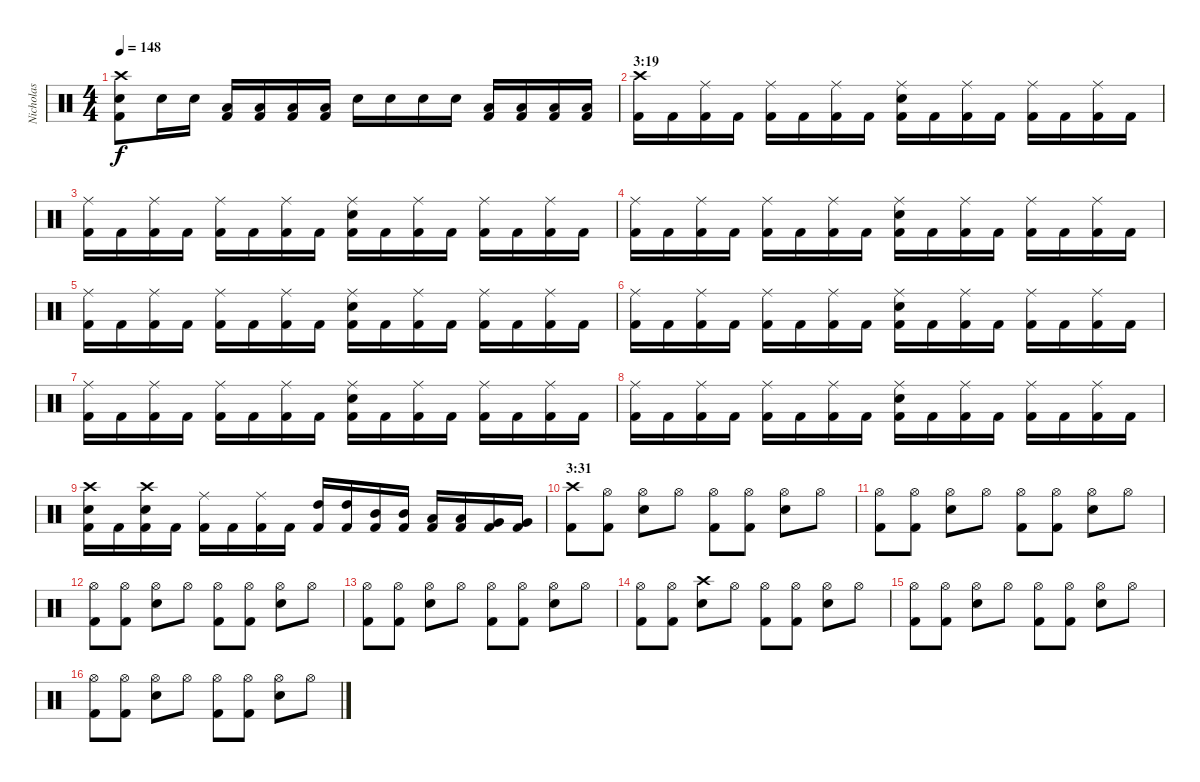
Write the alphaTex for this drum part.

\track ("Nicholas" "Nicholas") {instrument percussion}
\staff {score}
\articulation defaults
\ts (4 4)
\tempo 148
\clef neutral
\ks c
("Kick (hit) 2" "Snare (hit) 2" "Crash high (hit)").8{dy f} "Snare (hit) 2".16 "Snare (hit) 2".16 ("Kick (hit) 2" "Low Tom (hit)").16 ("Kick (hit) 2" "Low Tom (hit)").16 ("Kick (hit) 2" "Low Tom (hit)").16 ("Kick (hit) 2" "Low Tom (hit)").16 "Snare (hit) 2".16 "Snare (hit) 2".16 "Snare (hit) 2".16 "Snare (hit) 2".16 ("Kick (hit) 2" "Low Tom (hit)").16 ("Kick (hit) 2" "Low Tom (hit)").16 ("Kick (hit) 2" "Low Tom (hit)").16 ("Kick (hit) 2" "Low Tom (hit)").16 |
\section ("" "3:19")
("Kick (hit) 2" "Crash high (hit)").16 "Kick (hit) 2".16 ("Kick (hit) 2" "Ride (middle)").16 "Kick (hit) 2".16 ("Kick (hit) 2" "Ride (middle)").16 "Kick (hit) 2".16 ("Kick (hit) 2" "Ride (middle)").16 "Kick (hit) 2".16 ("Kick (hit) 2" "Snare (hit) 2" "Ride (middle)").16 "Kick (hit) 2".16 ("Kick (hit) 2" "Ride (middle)").16 "Kick (hit) 2".16 ("Kick (hit) 2" "Ride (middle)").16 "Kick (hit) 2".16 ("Kick (hit) 2" "Ride (middle)").16 "Kick (hit) 2".16 |
("Kick (hit) 2" "Ride (middle)").16 "Kick (hit) 2".16 ("Kick (hit) 2" "Ride (middle)").16 "Kick (hit) 2".16 ("Kick (hit) 2" "Ride (middle)").16 "Kick (hit) 2".16 ("Kick (hit) 2" "Ride (middle)").16 "Kick (hit) 2".16 ("Kick (hit) 2" "Snare (hit) 2" "Ride (middle)").16 "Kick (hit) 2".16 ("Kick (hit) 2" "Ride (middle)").16 "Kick (hit) 2".16 ("Kick (hit) 2" "Ride (middle)").16 "Kick (hit) 2".16 ("Kick (hit) 2" "Ride (middle)").16 "Kick (hit) 2".16 |
("Kick (hit) 2" "Ride (middle)").16 "Kick (hit) 2".16 ("Kick (hit) 2" "Ride (middle)").16 "Kick (hit) 2".16 ("Kick (hit) 2" "Ride (middle)").16 "Kick (hit) 2".16 ("Kick (hit) 2" "Ride (middle)").16 "Kick (hit) 2".16 ("Kick (hit) 2" "Snare (hit) 2" "Ride (middle)").16 "Kick (hit) 2".16 ("Kick (hit) 2" "Ride (middle)").16 "Kick (hit) 2".16 ("Kick (hit) 2" "Ride (middle)").16 "Kick (hit) 2".16 ("Kick (hit) 2" "Ride (middle)").16 "Kick (hit) 2".16 |
("Kick (hit) 2" "Ride (middle)").16 "Kick (hit) 2".16 ("Kick (hit) 2" "Ride (middle)").16 "Kick (hit) 2".16 ("Kick (hit) 2" "Ride (middle)").16 "Kick (hit) 2".16 ("Kick (hit) 2" "Ride (middle)").16 "Kick (hit) 2".16 ("Kick (hit) 2" "Snare (hit) 2" "Ride (middle)").16 "Kick (hit) 2".16 ("Kick (hit) 2" "Ride (middle)").16 "Kick (hit) 2".16 ("Kick (hit) 2" "Ride (middle)").16 "Kick (hit) 2".16 ("Kick (hit) 2" "Ride (middle)").16 "Kick (hit) 2".16 |
("Kick (hit) 2" "Ride (middle)").16 "Kick (hit) 2".16 ("Kick (hit) 2" "Ride (middle)").16 "Kick (hit) 2".16 ("Kick (hit) 2" "Ride (middle)").16 "Kick (hit) 2".16 ("Kick (hit) 2" "Ride (middle)").16 "Kick (hit) 2".16 ("Kick (hit) 2" "Snare (hit) 2" "Ride (middle)").16 "Kick (hit) 2".16 ("Kick (hit) 2" "Ride (middle)").16 "Kick (hit) 2".16 ("Kick (hit) 2" "Ride (middle)").16 "Kick (hit) 2".16 ("Kick (hit) 2" "Ride (middle)").16 "Kick (hit) 2".16 |
("Kick (hit) 2" "Ride (middle)").16 "Kick (hit) 2".16 ("Kick (hit) 2" "Ride (middle)").16 "Kick (hit) 2".16 ("Kick (hit) 2" "Ride (middle)").16 "Kick (hit) 2".16 ("Kick (hit) 2" "Ride (middle)").16 "Kick (hit) 2".16 ("Kick (hit) 2" "Snare (hit) 2" "Ride (middle)").16 "Kick (hit) 2".16 ("Kick (hit) 2" "Ride (middle)").16 "Kick (hit) 2".16 ("Kick (hit) 2" "Ride (middle)").16 "Kick (hit) 2".16 ("Kick (hit) 2" "Ride (middle)").16 "Kick (hit) 2".16 |
("Kick (hit) 2" "Ride (middle)").16 "Kick (hit) 2".16 ("Kick (hit) 2" "Ride (middle)").16 "Kick (hit) 2".16 ("Kick (hit) 2" "Ride (middle)").16 "Kick (hit) 2".16 ("Kick (hit) 2" "Ride (middle)").16 "Kick (hit) 2".16 ("Kick (hit) 2" "Snare (hit) 2" "Ride (middle)").16 "Kick (hit) 2".16 ("Kick (hit) 2" "Ride (middle)").16 "Kick (hit) 2".16 ("Kick (hit) 2" "Ride (middle)").16 "Kick (hit) 2".16 ("Kick (hit) 2" "Ride (middle)").16 "Kick (hit) 2".16 |
("Kick (hit) 2" "Snare (hit) 2" "Crash high (hit)").16 "Kick (hit) 2".16 ("Kick (hit) 2" "Snare (hit) 2" "Crash high (hit)").16 "Kick (hit) 2".16 ("Kick (hit) 2" "Ride (middle)").16 "Kick (hit) 2".16 ("Kick (hit) 2" "Ride (middle)").16 "Kick (hit) 2".16 ("Kick (hit) 2" "High Tom (hit)").16 ("Kick (hit) 2" "High Tom (hit)").16 ("Kick (hit) 2" "Mid Tom (hit)").16 ("Kick (hit) 2" "Mid Tom (hit)").16 ("Kick (hit) 2" "Low Tom (hit)").16 ("Kick (hit) 2" "Low Tom (hit)").16 ("Kick (hit) 2" "Very Low Tom (hit)").16 ("Kick (hit) 2" "Very Low Tom (hit)").16 |
\section ("" "3:31")
("Kick (hit) 2" "Crash high (hit)").8 ("Kick (hit) 2" "Hi-Hat (open)").8 ("Snare (hit) 2" "Hi-Hat (open)").8 "Hi-Hat (open)".8 ("Kick (hit) 2" "Hi-Hat (open)").8 ("Kick (hit) 2" "Hi-Hat (open)").8 ("Snare (hit) 2" "Hi-Hat (open)").8 "Hi-Hat (open)".8 |
("Kick (hit) 2" "Hi-Hat (open)").8 ("Kick (hit) 2" "Hi-Hat (open)").8 ("Snare (hit) 2" "Hi-Hat (open)").8 "Hi-Hat (open)".8 ("Kick (hit) 2" "Hi-Hat (open)").8 ("Kick (hit) 2" "Hi-Hat (open)").8 ("Snare (hit) 2" "Hi-Hat (open)").8 "Hi-Hat (open)".8 |
("Kick (hit) 2" "Hi-Hat (open)").8 ("Kick (hit) 2" "Hi-Hat (open)").8 ("Snare (hit) 2" "Hi-Hat (open)").8 "Hi-Hat (open)".8 ("Kick (hit) 2" "Hi-Hat (open)").8 ("Kick (hit) 2" "Hi-Hat (open)").8 ("Snare (hit) 2" "Hi-Hat (open)").8 "Hi-Hat (open)".8 |
("Kick (hit) 2" "Hi-Hat (open)").8 ("Kick (hit) 2" "Hi-Hat (open)").8 ("Snare (hit) 2" "Hi-Hat (open)").8 "Hi-Hat (open)".8 ("Kick (hit) 2" "Hi-Hat (open)").8 ("Kick (hit) 2" "Hi-Hat (open)").8 ("Snare (hit) 2" "Hi-Hat (open)").8 "Hi-Hat (open)".8 |
("Kick (hit) 2" "Hi-Hat (open)").8 ("Kick (hit) 2" "Hi-Hat (open)").8 ("Snare (hit) 2" "Crash high (hit)").8 "Hi-Hat (open)".8 ("Kick (hit) 2" "Hi-Hat (open)").8 ("Kick (hit) 2" "Hi-Hat (open)").8 ("Snare (hit) 2" "Hi-Hat (open)").8 "Hi-Hat (open)".8 |
("Kick (hit) 2" "Hi-Hat (open)").8 ("Kick (hit) 2" "Hi-Hat (open)").8 ("Snare (hit) 2" "Hi-Hat (open)").8 "Hi-Hat (open)".8 ("Kick (hit) 2" "Hi-Hat (open)").8 ("Kick (hit) 2" "Hi-Hat (open)").8 ("Snare (hit) 2" "Hi-Hat (open)").8 "Hi-Hat (open)".8 |
("Kick (hit) 2" "Hi-Hat (open)").8 ("Kick (hit) 2" "Hi-Hat (open)").8 ("Snare (hit) 2" "Hi-Hat (open)").8 "Hi-Hat (open)".8 ("Kick (hit) 2" "Hi-Hat (open)").8 ("Kick (hit) 2" "Hi-Hat (open)").8 ("Snare (hit) 2" "Hi-Hat (open)").8 "Hi-Hat (open)".8
